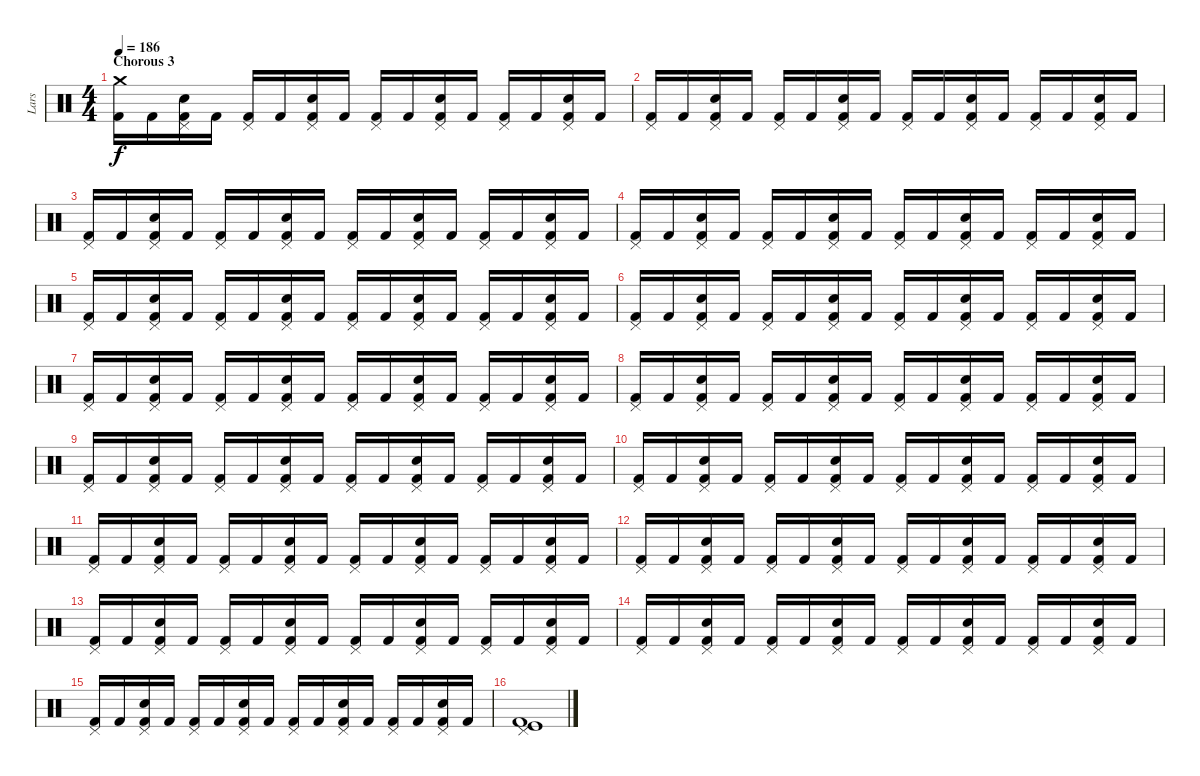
\track ("Lars" "Lars") {instrument percussion}
\staff {score}
\articulation defaults
\ts (4 4)
\section ("" "Chorous 3")
\tempo 186
\clef neutral
\ks c
("Crash medium (hit)" "Kick (hit) 2").16{dy f} "Kick (hit) 2".16 ("Pedal Hi-Hat (hit)" "Electric Snare (hit)" "Kick (hit) 2").16 "Kick (hit) 2".16 ("Pedal Hi-Hat (hit)" "Kick (hit) 2").16 "Kick (hit) 2".16 ("Pedal Hi-Hat (hit)" "Electric Snare (hit)" "Kick (hit) 2").16 "Kick (hit) 2".16 ("Pedal Hi-Hat (hit)" "Kick (hit) 2").16 "Kick (hit) 2".16 ("Pedal Hi-Hat (hit)" "Electric Snare (hit)" "Kick (hit) 2").16 "Kick (hit) 2".16 ("Pedal Hi-Hat (hit)" "Kick (hit) 2").16 "Kick (hit) 2".16 ("Pedal Hi-Hat (hit)" "Electric Snare (hit)" "Kick (hit) 2").16 "Kick (hit) 2".16 |
("Pedal Hi-Hat (hit)" "Kick (hit) 2").16 "Kick (hit) 2".16 ("Pedal Hi-Hat (hit)" "Electric Snare (hit)" "Kick (hit) 2").16 "Kick (hit) 2".16 ("Pedal Hi-Hat (hit)" "Kick (hit) 2").16 "Kick (hit) 2".16 ("Pedal Hi-Hat (hit)" "Electric Snare (hit)" "Kick (hit) 2").16 "Kick (hit) 2".16 ("Pedal Hi-Hat (hit)" "Kick (hit) 2").16 "Kick (hit) 2".16 ("Pedal Hi-Hat (hit)" "Electric Snare (hit)" "Kick (hit) 2").16 "Kick (hit) 2".16 ("Pedal Hi-Hat (hit)" "Kick (hit) 2").16 "Kick (hit) 2".16 ("Pedal Hi-Hat (hit)" "Electric Snare (hit)" "Kick (hit) 2").16 "Kick (hit) 2".16 |
("Pedal Hi-Hat (hit)" "Kick (hit) 2").16 "Kick (hit) 2".16 ("Pedal Hi-Hat (hit)" "Electric Snare (hit)" "Kick (hit) 2").16 "Kick (hit) 2".16 ("Pedal Hi-Hat (hit)" "Kick (hit) 2").16 "Kick (hit) 2".16 ("Pedal Hi-Hat (hit)" "Electric Snare (hit)" "Kick (hit) 2").16 "Kick (hit) 2".16 ("Pedal Hi-Hat (hit)" "Kick (hit) 2").16 "Kick (hit) 2".16 ("Pedal Hi-Hat (hit)" "Electric Snare (hit)" "Kick (hit) 2").16 "Kick (hit) 2".16 ("Pedal Hi-Hat (hit)" "Kick (hit) 2").16 "Kick (hit) 2".16 ("Pedal Hi-Hat (hit)" "Electric Snare (hit)" "Kick (hit) 2").16 "Kick (hit) 2".16 |
("Pedal Hi-Hat (hit)" "Kick (hit) 2").16 "Kick (hit) 2".16 ("Pedal Hi-Hat (hit)" "Electric Snare (hit)" "Kick (hit) 2").16 "Kick (hit) 2".16 ("Pedal Hi-Hat (hit)" "Kick (hit) 2").16 "Kick (hit) 2".16 ("Pedal Hi-Hat (hit)" "Electric Snare (hit)" "Kick (hit) 2").16 "Kick (hit) 2".16 ("Pedal Hi-Hat (hit)" "Kick (hit) 2").16 "Kick (hit) 2".16 ("Pedal Hi-Hat (hit)" "Electric Snare (hit)" "Kick (hit) 2").16 "Kick (hit) 2".16 ("Pedal Hi-Hat (hit)" "Kick (hit) 2").16 "Kick (hit) 2".16 ("Pedal Hi-Hat (hit)" "Electric Snare (hit)" "Kick (hit) 2").16 "Kick (hit) 2".16 |
("Pedal Hi-Hat (hit)" "Kick (hit) 2").16 "Kick (hit) 2".16 ("Pedal Hi-Hat (hit)" "Electric Snare (hit)" "Kick (hit) 2").16 "Kick (hit) 2".16 ("Pedal Hi-Hat (hit)" "Kick (hit) 2").16 "Kick (hit) 2".16 ("Pedal Hi-Hat (hit)" "Electric Snare (hit)" "Kick (hit) 2").16 "Kick (hit) 2".16 ("Pedal Hi-Hat (hit)" "Kick (hit) 2").16 "Kick (hit) 2".16 ("Pedal Hi-Hat (hit)" "Electric Snare (hit)" "Kick (hit) 2").16 "Kick (hit) 2".16 ("Pedal Hi-Hat (hit)" "Kick (hit) 2").16 "Kick (hit) 2".16 ("Pedal Hi-Hat (hit)" "Electric Snare (hit)" "Kick (hit) 2").16 "Kick (hit) 2".16 |
("Pedal Hi-Hat (hit)" "Kick (hit) 2").16 "Kick (hit) 2".16 ("Pedal Hi-Hat (hit)" "Electric Snare (hit)" "Kick (hit) 2").16 "Kick (hit) 2".16 ("Pedal Hi-Hat (hit)" "Kick (hit) 2").16 "Kick (hit) 2".16 ("Pedal Hi-Hat (hit)" "Electric Snare (hit)" "Kick (hit) 2").16 "Kick (hit) 2".16 ("Pedal Hi-Hat (hit)" "Kick (hit) 2").16 "Kick (hit) 2".16 ("Pedal Hi-Hat (hit)" "Electric Snare (hit)" "Kick (hit) 2").16 "Kick (hit) 2".16 ("Pedal Hi-Hat (hit)" "Kick (hit) 2").16 "Kick (hit) 2".16 ("Pedal Hi-Hat (hit)" "Electric Snare (hit)" "Kick (hit) 2").16 "Kick (hit) 2".16 |
("Pedal Hi-Hat (hit)" "Kick (hit) 2").16 "Kick (hit) 2".16 ("Pedal Hi-Hat (hit)" "Electric Snare (hit)" "Kick (hit) 2").16 "Kick (hit) 2".16 ("Pedal Hi-Hat (hit)" "Kick (hit) 2").16 "Kick (hit) 2".16 ("Pedal Hi-Hat (hit)" "Electric Snare (hit)" "Kick (hit) 2").16 "Kick (hit) 2".16 ("Pedal Hi-Hat (hit)" "Kick (hit) 2").16 "Kick (hit) 2".16 ("Pedal Hi-Hat (hit)" "Electric Snare (hit)" "Kick (hit) 2").16 "Kick (hit) 2".16 ("Pedal Hi-Hat (hit)" "Kick (hit) 2").16 "Kick (hit) 2".16 ("Pedal Hi-Hat (hit)" "Electric Snare (hit)" "Kick (hit) 2").16 "Kick (hit) 2".16 |
("Pedal Hi-Hat (hit)" "Kick (hit) 2").16 "Kick (hit) 2".16 ("Pedal Hi-Hat (hit)" "Electric Snare (hit)" "Kick (hit) 2").16 "Kick (hit) 2".16 ("Pedal Hi-Hat (hit)" "Kick (hit) 2").16 "Kick (hit) 2".16 ("Pedal Hi-Hat (hit)" "Electric Snare (hit)" "Kick (hit) 2").16 "Kick (hit) 2".16 ("Pedal Hi-Hat (hit)" "Kick (hit) 2").16 "Kick (hit) 2".16 ("Pedal Hi-Hat (hit)" "Electric Snare (hit)" "Kick (hit) 2").16 "Kick (hit) 2".16 ("Pedal Hi-Hat (hit)" "Kick (hit) 2").16 "Kick (hit) 2".16 ("Pedal Hi-Hat (hit)" "Electric Snare (hit)" "Kick (hit) 2").16 "Kick (hit) 2".16 |
("Pedal Hi-Hat (hit)" "Kick (hit) 2").16 "Kick (hit) 2".16 ("Pedal Hi-Hat (hit)" "Electric Snare (hit)" "Kick (hit) 2").16 "Kick (hit) 2".16 ("Pedal Hi-Hat (hit)" "Kick (hit) 2").16 "Kick (hit) 2".16 ("Pedal Hi-Hat (hit)" "Electric Snare (hit)" "Kick (hit) 2").16 "Kick (hit) 2".16 ("Pedal Hi-Hat (hit)" "Kick (hit) 2").16 "Kick (hit) 2".16 ("Pedal Hi-Hat (hit)" "Electric Snare (hit)" "Kick (hit) 2").16 "Kick (hit) 2".16 ("Pedal Hi-Hat (hit)" "Kick (hit) 2").16 "Kick (hit) 2".16 ("Pedal Hi-Hat (hit)" "Electric Snare (hit)" "Kick (hit) 2").16 "Kick (hit) 2".16 |
("Pedal Hi-Hat (hit)" "Kick (hit) 2").16 "Kick (hit) 2".16 ("Pedal Hi-Hat (hit)" "Electric Snare (hit)" "Kick (hit) 2").16 "Kick (hit) 2".16 ("Pedal Hi-Hat (hit)" "Kick (hit) 2").16 "Kick (hit) 2".16 ("Pedal Hi-Hat (hit)" "Electric Snare (hit)" "Kick (hit) 2").16 "Kick (hit) 2".16 ("Pedal Hi-Hat (hit)" "Kick (hit) 2").16 "Kick (hit) 2".16 ("Pedal Hi-Hat (hit)" "Electric Snare (hit)" "Kick (hit) 2").16 "Kick (hit) 2".16 ("Pedal Hi-Hat (hit)" "Kick (hit) 2").16 "Kick (hit) 2".16 ("Pedal Hi-Hat (hit)" "Electric Snare (hit)" "Kick (hit) 2").16 "Kick (hit) 2".16 |
("Pedal Hi-Hat (hit)" "Kick (hit) 2").16 "Kick (hit) 2".16 ("Pedal Hi-Hat (hit)" "Electric Snare (hit)" "Kick (hit) 2").16 "Kick (hit) 2".16 ("Pedal Hi-Hat (hit)" "Kick (hit) 2").16 "Kick (hit) 2".16 ("Pedal Hi-Hat (hit)" "Electric Snare (hit)" "Kick (hit) 2").16 "Kick (hit) 2".16 ("Pedal Hi-Hat (hit)" "Kick (hit) 2").16 "Kick (hit) 2".16 ("Pedal Hi-Hat (hit)" "Electric Snare (hit)" "Kick (hit) 2").16 "Kick (hit) 2".16 ("Pedal Hi-Hat (hit)" "Kick (hit) 2").16 "Kick (hit) 2".16 ("Pedal Hi-Hat (hit)" "Electric Snare (hit)" "Kick (hit) 2").16 "Kick (hit) 2".16 |
("Pedal Hi-Hat (hit)" "Kick (hit) 2").16 "Kick (hit) 2".16 ("Pedal Hi-Hat (hit)" "Electric Snare (hit)" "Kick (hit) 2").16 "Kick (hit) 2".16 ("Pedal Hi-Hat (hit)" "Kick (hit) 2").16 "Kick (hit) 2".16 ("Pedal Hi-Hat (hit)" "Electric Snare (hit)" "Kick (hit) 2").16 "Kick (hit) 2".16 ("Pedal Hi-Hat (hit)" "Kick (hit) 2").16 "Kick (hit) 2".16 ("Pedal Hi-Hat (hit)" "Electric Snare (hit)" "Kick (hit) 2").16 "Kick (hit) 2".16 ("Pedal Hi-Hat (hit)" "Kick (hit) 2").16 "Kick (hit) 2".16 ("Pedal Hi-Hat (hit)" "Electric Snare (hit)" "Kick (hit) 2").16 "Kick (hit) 2".16 |
("Pedal Hi-Hat (hit)" "Kick (hit) 2").16 "Kick (hit) 2".16 ("Pedal Hi-Hat (hit)" "Electric Snare (hit)" "Kick (hit) 2").16 "Kick (hit) 2".16 ("Pedal Hi-Hat (hit)" "Kick (hit) 2").16 "Kick (hit) 2".16 ("Pedal Hi-Hat (hit)" "Electric Snare (hit)" "Kick (hit) 2").16 "Kick (hit) 2".16 ("Pedal Hi-Hat (hit)" "Kick (hit) 2").16 "Kick (hit) 2".16 ("Pedal Hi-Hat (hit)" "Electric Snare (hit)" "Kick (hit) 2").16 "Kick (hit) 2".16 ("Pedal Hi-Hat (hit)" "Kick (hit) 2").16 "Kick (hit) 2".16 ("Pedal Hi-Hat (hit)" "Electric Snare (hit)" "Kick (hit) 2").16 "Kick (hit) 2".16 |
("Pedal Hi-Hat (hit)" "Kick (hit) 2").16 "Kick (hit) 2".16 ("Pedal Hi-Hat (hit)" "Electric Snare (hit)" "Kick (hit) 2").16 "Kick (hit) 2".16 ("Pedal Hi-Hat (hit)" "Kick (hit) 2").16 "Kick (hit) 2".16 ("Pedal Hi-Hat (hit)" "Electric Snare (hit)" "Kick (hit) 2").16 "Kick (hit) 2".16 ("Pedal Hi-Hat (hit)" "Kick (hit) 2").16 "Kick (hit) 2".16 ("Pedal Hi-Hat (hit)" "Electric Snare (hit)" "Kick (hit) 2").16 "Kick (hit) 2".16 ("Pedal Hi-Hat (hit)" "Kick (hit) 2").16 "Kick (hit) 2".16 ("Pedal Hi-Hat (hit)" "Electric Snare (hit)" "Kick (hit) 2").16 "Kick (hit) 2".16 |
("Pedal Hi-Hat (hit)" "Kick (hit) 2").16 "Kick (hit) 2".16 ("Pedal Hi-Hat (hit)" "Electric Snare (hit)" "Kick (hit) 2").16 "Kick (hit) 2".16 ("Pedal Hi-Hat (hit)" "Kick (hit) 2").16 "Kick (hit) 2".16 ("Pedal Hi-Hat (hit)" "Electric Snare (hit)" "Kick (hit) 2").16 "Kick (hit) 2".16 ("Pedal Hi-Hat (hit)" "Kick (hit) 2").16 "Kick (hit) 2".16 ("Pedal Hi-Hat (hit)" "Electric Snare (hit)" "Kick (hit) 2").16 "Kick (hit) 2".16 ("Pedal Hi-Hat (hit)" "Kick (hit) 2").16 "Kick (hit) 2".16 ("Pedal Hi-Hat (hit)" "Electric Snare (hit)" "Kick (hit) 2").16 "Kick (hit) 2".16 |
("Pedal Hi-Hat (hit)" "Kick (hit)" "Kick (hit) 2").1
